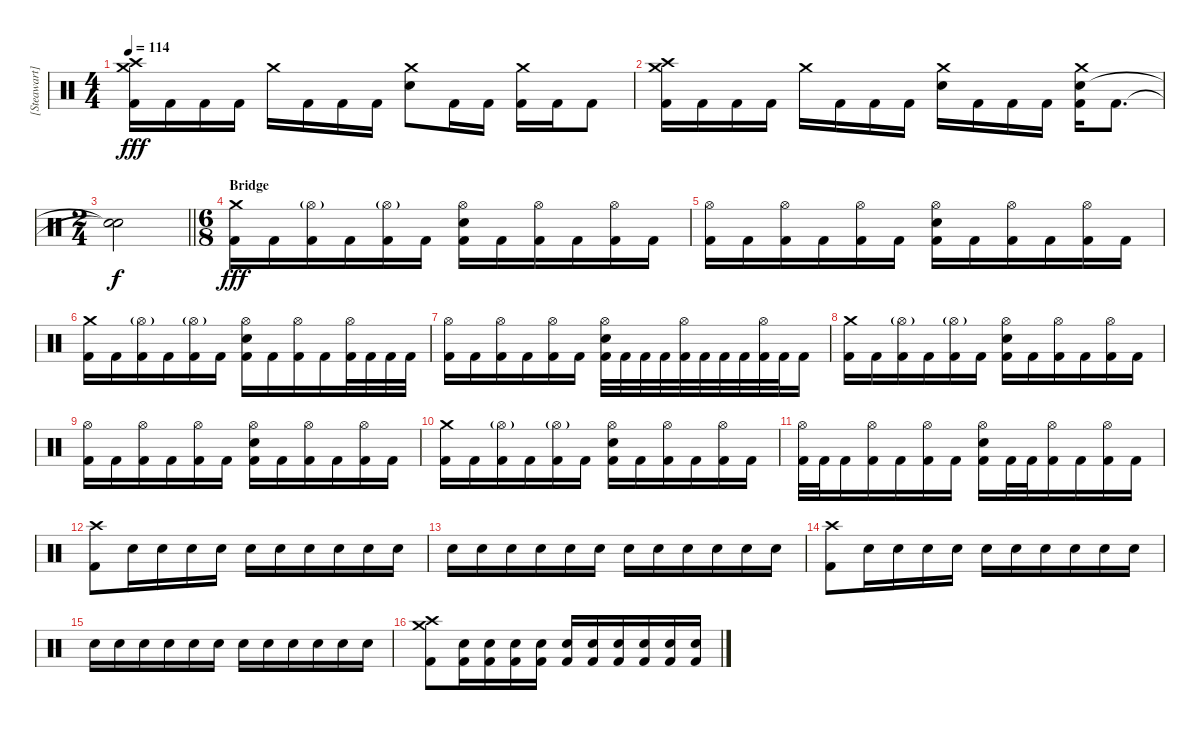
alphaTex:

\track ("[Steawart] Drums" "[Steawart]") {solo instrument percussion}
\staff {score}
\articulation defaults
\ts (4 4)
\tempo 114
\clef neutral
\ks c
("Crash medium (hit)" "Crash high (hit)" "Kick (hit) 2").16{dy fff} "Kick (hit) 2".16 "Kick (hit) 2".16 "Kick (hit) 2".16 "Crash medium (hit)".16 "Kick (hit) 2".16 "Kick (hit) 2".16 "Kick (hit) 2".16 ("Crash medium (hit)" "Electric Snare (hit)").8 "Kick (hit) 2".16 "Kick (hit) 2".16 ("Crash medium (hit)" "Kick (hit) 2").16 "Kick (hit) 2".16 "Kick (hit) 2".8 |
("Crash medium (hit)" "Crash high (hit)" "Kick (hit) 2").16 "Kick (hit) 2".16 "Kick (hit) 2".16 "Kick (hit) 2".16 "Crash medium (hit)".16 "Kick (hit) 2".16 "Kick (hit) 2".16 "Kick (hit) 2".16 ("Crash medium (hit)" "Electric Snare (hit)").16 "Kick (hit) 2".16 "Kick (hit) 2".16 "Kick (hit) 2".16 ("Crash medium (hit)" "Electric Snare (hit)" "Kick (hit) 2").16 "Kick (hit) 2".8{d} |
\ts (2 4)
\barLineRight lightlight
("Snare (hit)"{t} "Snare (hit)"{t}).2{dy f} |
\ts (6 8)
\section ("" "Bridge")
("Crash medium (hit)" "Kick (hit) 2").16{dy fff} "Kick (hit) 2".16 ("Hi-Hat (open)"{g} "Kick (hit) 2").16 "Kick (hit) 2".16 ("Hi-Hat (open)"{g} "Kick (hit) 2").16 "Kick (hit) 2".16 ("Hi-Hat (open)" "Electric Snare (hit)" "Kick (hit) 2").16 "Kick (hit) 2".16 ("Hi-Hat (open)" "Kick (hit) 2").16 "Kick (hit) 2".16 ("Hi-Hat (open)" "Kick (hit) 2").16 "Kick (hit) 2".16 |
("Hi-Hat (open)" "Kick (hit) 2").16 "Kick (hit) 2".16 ("Hi-Hat (open)" "Kick (hit) 2").16 "Kick (hit) 2".16 ("Hi-Hat (open)" "Kick (hit) 2").16 "Kick (hit) 2".16 ("Hi-Hat (open)" "Electric Snare (hit)" "Kick (hit) 2").16 "Kick (hit) 2".16 ("Hi-Hat (open)" "Kick (hit) 2").16 "Kick (hit) 2".16 ("Hi-Hat (open)" "Kick (hit) 2").16 "Kick (hit) 2".16 |
("Crash medium (hit)" "Kick (hit) 2").16 "Kick (hit) 2".16 ("Hi-Hat (open)"{g} "Kick (hit) 2").16 "Kick (hit) 2".16 ("Hi-Hat (open)"{g} "Kick (hit) 2").16 "Kick (hit) 2".16 ("Hi-Hat (open)" "Electric Snare (hit)" "Kick (hit) 2").16 "Kick (hit) 2".16 ("Hi-Hat (open)" "Kick (hit) 2").16 "Kick (hit) 2".16 ("Hi-Hat (open)" "Kick (hit) 2").32 "Kick (hit) 2".32 "Kick (hit) 2".32 "Kick (hit) 2".32 |
("Hi-Hat (open)" "Kick (hit) 2").16 "Kick (hit) 2".16 ("Hi-Hat (open)" "Kick (hit) 2").16 "Kick (hit) 2".16 ("Hi-Hat (open)" "Kick (hit) 2").16 "Kick (hit) 2".16 ("Hi-Hat (open)" "Electric Snare (hit)" "Kick (hit) 2").32 "Kick (hit) 2".32 "Kick (hit) 2".32 "Kick (hit) 2".32 ("Hi-Hat (open)" "Kick (hit) 2").32 "Kick (hit) 2".32 "Kick (hit) 2".32 "Kick (hit) 2".32 ("Hi-Hat (open)" "Kick (hit) 2").32 "Kick (hit) 2".32 "Kick (hit) 2".16 |
("Crash medium (hit)" "Kick (hit) 2").16 "Kick (hit) 2".16 ("Hi-Hat (open)"{g} "Kick (hit) 2").16 "Kick (hit) 2".16 ("Hi-Hat (open)"{g} "Kick (hit) 2").16 "Kick (hit) 2".16 ("Hi-Hat (open)" "Electric Snare (hit)" "Kick (hit) 2").16 "Kick (hit) 2".16 ("Hi-Hat (open)" "Kick (hit) 2").16 "Kick (hit) 2".16 ("Hi-Hat (open)" "Kick (hit) 2").16 "Kick (hit) 2".16 |
("Hi-Hat (open)" "Kick (hit) 2").16 "Kick (hit) 2".16 ("Hi-Hat (open)" "Kick (hit) 2").16 "Kick (hit) 2".16 ("Hi-Hat (open)" "Kick (hit) 2").16 "Kick (hit) 2".16 ("Hi-Hat (open)" "Electric Snare (hit)" "Kick (hit) 2").16 "Kick (hit) 2".16 ("Hi-Hat (open)" "Kick (hit) 2").16 "Kick (hit) 2".16 ("Hi-Hat (open)" "Kick (hit) 2").16 "Kick (hit) 2".16 |
("Crash medium (hit)" "Kick (hit) 2").16 "Kick (hit) 2".16 ("Hi-Hat (open)"{g} "Kick (hit) 2").16 "Kick (hit) 2".16 ("Hi-Hat (open)"{g} "Kick (hit) 2").16 "Kick (hit) 2".16 ("Hi-Hat (open)" "Electric Snare (hit)" "Kick (hit) 2").16 "Kick (hit) 2".16 ("Hi-Hat (open)" "Kick (hit) 2").16 "Kick (hit) 2".16 ("Hi-Hat (open)" "Kick (hit) 2").16 "Kick (hit) 2".16 |
("Hi-Hat (open)" "Kick (hit) 2").32 "Kick (hit) 2".32 "Kick (hit) 2".16 ("Hi-Hat (open)" "Kick (hit) 2").16 "Kick (hit) 2".16 ("Hi-Hat (open)" "Kick (hit) 2").16 "Kick (hit) 2".16 ("Hi-Hat (open)" "Electric Snare (hit)" "Kick (hit) 2").16 "Kick (hit) 2".32 "Kick (hit) 2".32 ("Hi-Hat (open)" "Kick (hit) 2").16 "Kick (hit) 2".16 ("Hi-Hat (open)" "Kick (hit) 2").16 "Kick (hit) 2".16 |
("Crash high (hit)" "Kick (hit) 2").8 "Electric Snare (hit)".16 "Electric Snare (hit)".16 "Electric Snare (hit)".16 "Electric Snare (hit)".16 "Electric Snare (hit)".16 "Electric Snare (hit)".16 "Electric Snare (hit)".16 "Electric Snare (hit)".16 "Electric Snare (hit)".16 "Electric Snare (hit)".16 |
"Electric Snare (hit)".16 "Electric Snare (hit)".16 "Electric Snare (hit)".16 "Electric Snare (hit)".16 "Electric Snare (hit)".16 "Electric Snare (hit)".16 "Electric Snare (hit)".16 "Electric Snare (hit)".16 "Electric Snare (hit)".16 "Electric Snare (hit)".16 "Electric Snare (hit)".16 "Electric Snare (hit)".16 |
("Crash high (hit)" "Kick (hit) 2").8 "Electric Snare (hit)".16 "Electric Snare (hit)".16 "Electric Snare (hit)".16 "Electric Snare (hit)".16 "Electric Snare (hit)".16 "Electric Snare (hit)".16 "Electric Snare (hit)".16 "Electric Snare (hit)".16 "Electric Snare (hit)".16 "Electric Snare (hit)".16 |
"Electric Snare (hit)".16 "Electric Snare (hit)".16 "Electric Snare (hit)".16 "Electric Snare (hit)".16 "Electric Snare (hit)".16 "Electric Snare (hit)".16 "Electric Snare (hit)".16 "Electric Snare (hit)".16 "Electric Snare (hit)".16 "Electric Snare (hit)".16 "Electric Snare (hit)".16 "Electric Snare (hit)".16 |
("Crash high (hit)" "Crash medium (hit)" "Kick (hit) 2").8 ("Electric Snare (hit)" "Kick (hit) 2").16 ("Electric Snare (hit)" "Kick (hit) 2").16 ("Electric Snare (hit)" "Kick (hit) 2").16 ("Electric Snare (hit)" "Kick (hit) 2").16 ("Electric Snare (hit)" "Kick (hit) 2").16 ("Electric Snare (hit)" "Kick (hit) 2").16 ("Electric Snare (hit)" "Kick (hit) 2").16 ("Electric Snare (hit)" "Kick (hit) 2").16 ("Electric Snare (hit)" "Kick (hit) 2").16 ("Electric Snare (hit)" "Kick (hit) 2").16
